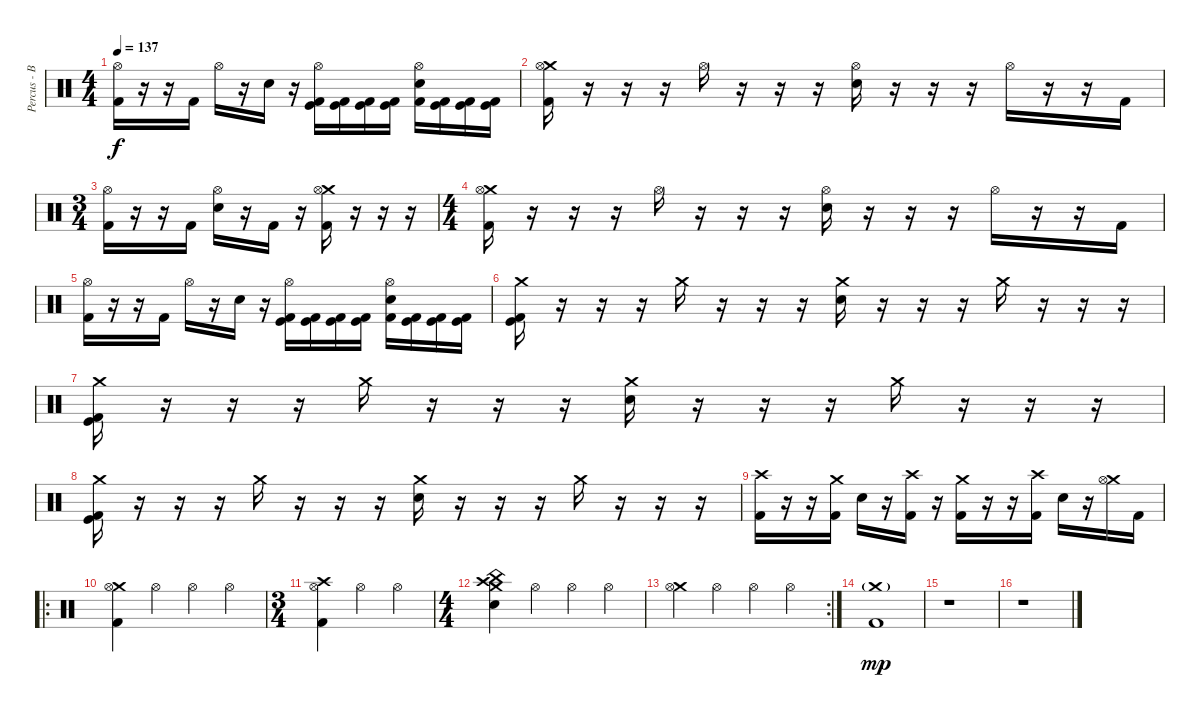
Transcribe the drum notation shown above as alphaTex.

\track ("Percus - Brice" "Percus - B") {instrument percussion}
\staff {score}
\articulation defaults
\ts (4 4)
\tempo 137
\clef neutral
\ks c
("Hi-Hat (open)" "Kick (hit) 2").16{dy f} r.16 r.16 "Kick (hit) 2".16 "Hi-Hat (open)".16 r.16 "Electric Snare (hit)".16 r.16 ("Hi-Hat (open)" "Kick (hit)" "Kick (hit) 2").16 ("Kick (hit)" "Kick (hit) 2").16 ("Kick (hit)" "Kick (hit) 2").16 ("Kick (hit)" "Kick (hit) 2").16 ("Hi-Hat (open)" "Electric Snare (hit)" "Kick (hit) 2").16 ("Kick (hit)" "Kick (hit) 2").16 ("Kick (hit)" "Kick (hit) 2").16 ("Kick (hit)" "Kick (hit) 2").16 |
("Crash medium (hit)" "Hi-Hat (open)" "Kick (hit) 2").16 r.16 r.16 r.16 "Hi-Hat (open)".16 r.16 r.16 r.16 ("Hi-Hat (open)" "Electric Snare (hit)").16 r.16 r.16 r.16 "Hi-Hat (open)".16 r.16 r.16 "Kick (hit) 2".16 |
\ts (3 4)
("Hi-Hat (open)" "Kick (hit) 2").16 r.16 r.16 "Kick (hit) 2".16 ("Hi-Hat (open)" "Electric Snare (hit)").16 r.16 "Kick (hit) 2".16 r.16 ("Crash medium (hit)" "Hi-Hat (open)" "Kick (hit) 2").16 r.16 r.16 r.16 |
\ts (4 4)
("Crash medium (hit)" "Hi-Hat (open)" "Kick (hit) 2").16 r.16 r.16 r.16 "Hi-Hat (open)".16 r.16 r.16 r.16 ("Hi-Hat (open)" "Electric Snare (hit)").16 r.16 r.16 r.16 "Hi-Hat (open)".16 r.16 r.16 "Kick (hit) 2".16 |
("Hi-Hat (open)" "Kick (hit) 2").16 r.16 r.16 "Kick (hit) 2".16 "Hi-Hat (open)".16 r.16 "Electric Snare (hit)".16 r.16 ("Hi-Hat (open)" "Kick (hit)" "Kick (hit) 2").16 ("Kick (hit)" "Kick (hit) 2").16 ("Kick (hit)" "Kick (hit) 2").16 ("Kick (hit)" "Kick (hit) 2").16 ("Hi-Hat (open)" "Electric Snare (hit)" "Kick (hit) 2").16 ("Kick (hit)" "Kick (hit) 2").16 ("Kick (hit)" "Kick (hit) 2").16 ("Kick (hit)" "Kick (hit) 2").16 |
("Crash medium (hit)" "Kick (hit)" "Kick (hit) 2").16 r.16 r.16 r.16 "Crash medium (hit)".16 r.16 r.16 r.16 ("Crash medium (hit)" "Electric Snare (hit)").16 r.16 r.16 r.16 "Crash medium (hit)".16 r.16 r.16 r.16 |
("Crash medium (hit)" "Kick (hit)" "Kick (hit) 2").16 r.16 r.16 r.16 "Crash medium (hit)".16 r.16 r.16 r.16 ("Crash medium (hit)" "Electric Snare (hit)").16 r.16 r.16 r.16 "Crash medium (hit)".16 r.16 r.16 r.16 |
("Crash medium (hit)" "Kick (hit)" "Kick (hit) 2").16 r.16 r.16 r.16 "Crash medium (hit)".16 r.16 r.16 r.16 ("Crash medium (hit)" "Electric Snare (hit)").16 r.16 r.16 r.16 "Crash medium (hit)".16 r.16 r.16 r.16 |
("Crash high (hit)" "Kick (hit) 2").16 r.16 r.16 ("Crash medium (hit)" "Kick (hit) 2").16 "Electric Snare (hit)".16 r.16 ("Crash high (hit)" "Kick (hit) 2").16 r.16 ("Crash medium (hit)" "Kick (hit) 2").16 r.16 r.16 ("Crash high (hit)" "Kick (hit) 2").16 "Electric Snare (hit)".16 r.16 ("Crash medium (hit)" "Hi-Hat (open)").16 "Kick (hit) 2".16 |
\ro
("Crash medium (hit)" "Kick (hit) 2" "Hi-Hat (open)").4 "Hi-Hat (open)".4 "Hi-Hat (open)".4 "Hi-Hat (open)".4 |
\ts (3 4)
("Crash high (hit)" "Kick (hit) 2" "Hi-Hat (open)").4 "Hi-Hat (open)".4 "Hi-Hat (open)".4 |
\ts (4 4)
("Crash medium (hit)" "Crash high (hit)" "China (hit)" "Snare (hit) 2").4 "Hi-Hat (open)".4 "Hi-Hat (open)".4 "Hi-Hat (open)".4 |
\rc 2
("Crash medium (hit)" "Hi-Hat (open)").4 "Hi-Hat (open)".4 "Hi-Hat (open)".4 "Hi-Hat (open)".4 |
("Crash medium (hit)"{g} "Kick (hit) 2").1{dy mp} |
r.1 |
r.1
